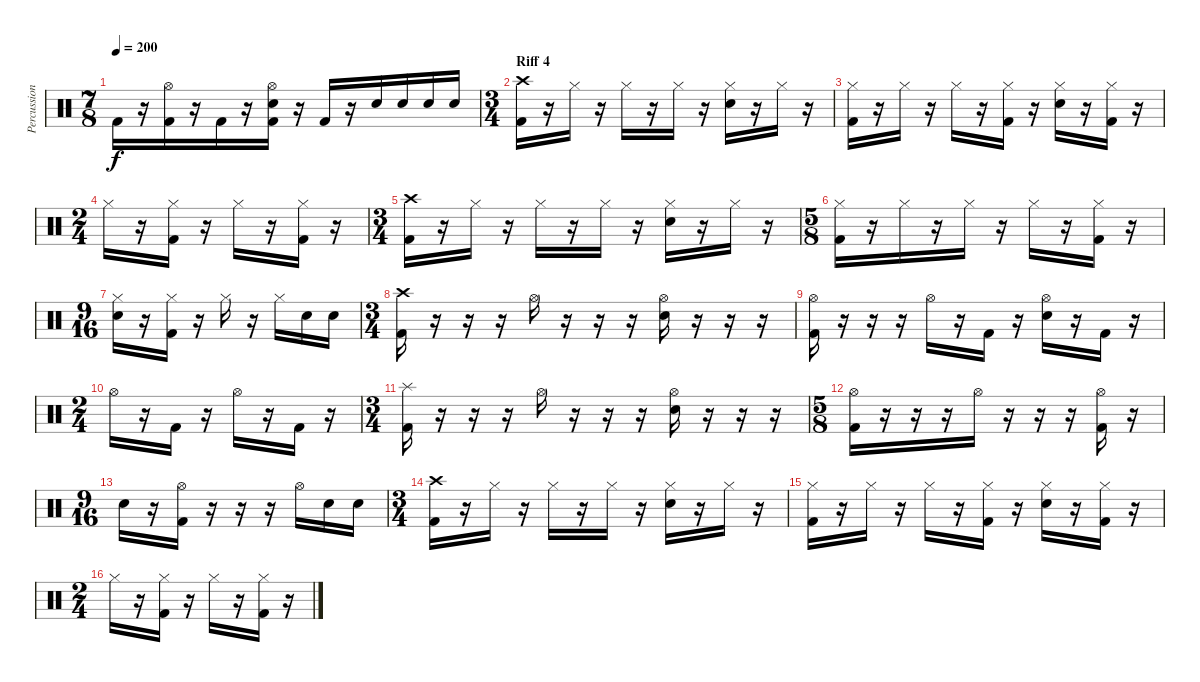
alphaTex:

\track ("Percussion" "Percussion") {instrument percussion}
\staff {score}
\articulation defaults
\ts (7 8)
\tempo 200
\clef neutral
\ks c "Kick (hit) 2".16{dy f}
r.16 ("Hi-Hat (open)" "Kick (hit) 2").16 r.16 "Kick (hit) 2".16 r.16 ("Hi-Hat (open)" "Electric Snare (hit)" "Kick (hit) 2").16 r.16 "Kick (hit) 2".16 r.16 "Electric Snare (hit)".16 "Electric Snare (hit)".16 "Electric Snare (hit)".16 "Electric Snare (hit)".16 |
\ts (3 4)
\section ("" "Riff 4")
("Crash high (hit)" "Kick (hit) 2").16 r.16 "Hi-Hat (closed)".16 r.16 "Hi-Hat (closed)".16 r.16 "Hi-Hat (closed)".16 r.16 ("Hi-Hat (closed)" "Electric Snare (hit)").16 r.16 "Hi-Hat (closed)".16 r.16 |
("Hi-Hat (closed)" "Kick (hit) 2").16 r.16 "Hi-Hat (closed)".16 r.16 "Hi-Hat (closed)".16 r.16 ("Hi-Hat (closed)" "Kick (hit) 2").16 r.16 ("Hi-Hat (closed)" "Electric Snare (hit)").16 r.16 ("Hi-Hat (closed)" "Kick (hit) 2").16 r.16 |
\ts (2 4)
"Hi-Hat (closed)".16 r.16 ("Hi-Hat (closed)" "Kick (hit) 2").16 r.16 "Hi-Hat (closed)".16 r.16 ("Hi-Hat (closed)" "Kick (hit) 2").16 r.16 |
\ts (3 4)
("Crash high (hit)" "Kick (hit) 2").16 r.16 "Hi-Hat (closed)".16 r.16 "Hi-Hat (closed)".16 r.16 "Hi-Hat (closed)".16 r.16 ("Hi-Hat (closed)" "Electric Snare (hit)").16 r.16 "Hi-Hat (closed)".16 r.16 |
\ts (5 8)
("Hi-Hat (closed)" "Kick (hit) 2").16 r.16 "Hi-Hat (closed)".16 r.16 "Hi-Hat (closed)".16 r.16 "Hi-Hat (closed)".16 r.16 ("Hi-Hat (closed)" "Kick (hit) 2").16 r.16 |
\ts (9 16)
("Hi-Hat (closed)" "Electric Snare (hit)").16 r.16 ("Hi-Hat (closed)" "Kick (hit) 2").16 r.16 "Hi-Hat (closed)".16 r.16 "Hi-Hat (closed)".16 "Electric Snare (hit)".16 "Electric Snare (hit)".16 |
\ts (3 4)
("Crash high (hit)" "Kick (hit) 2").16 r.16 r.16 r.16 "Hi-Hat (open)".16 r.16 r.16 r.16 ("Hi-Hat (open)" "Electric Snare (hit)").16 r.16 r.16 r.16 |
("Hi-Hat (open)" "Kick (hit) 2").16 r.16 r.16 r.16 "Hi-Hat (open)".16 r.16 "Kick (hit) 2".16 r.16 ("Hi-Hat (open)" "Electric Snare (hit)").16 r.16 "Kick (hit) 2".16 r.16 |
\ts (2 4)
"Hi-Hat (open)".16 r.16 "Kick (hit) 2".16 r.16 "Hi-Hat (open)".16 r.16 "Kick (hit) 2".16 r.16 |
\ts (3 4)
("Splash (hit)" "Kick (hit) 2").16 r.16 r.16 r.16 "Hi-Hat (open)".16 r.16 r.16 r.16 ("Hi-Hat (open)" "Electric Snare (hit)").16 r.16 r.16 r.16 |
\ts (5 8)
("Hi-Hat (open)" "Kick (hit) 2").16 r.16 r.16 r.16 "Hi-Hat (open)".16 r.16 r.16 r.16 ("Hi-Hat (open)" "Kick (hit) 2").16 r.16 |
\ts (9 16)
"Electric Snare (hit)".16 r.16 ("Hi-Hat (open)" "Kick (hit) 2").16 r.16 r.16 r.16 "Hi-Hat (open)".16 "Electric Snare (hit)".16 "Electric Snare (hit)".16 |
\ts (3 4)
("Crash high (hit)" "Kick (hit) 2").16 r.16 "Hi-Hat (closed)".16 r.16 "Hi-Hat (closed)".16 r.16 "Hi-Hat (closed)".16 r.16 ("Hi-Hat (closed)" "Electric Snare (hit)").16 r.16 "Hi-Hat (closed)".16 r.16 |
("Hi-Hat (closed)" "Kick (hit) 2").16 r.16 "Hi-Hat (closed)".16 r.16 "Hi-Hat (closed)".16 r.16 ("Hi-Hat (closed)" "Kick (hit) 2").16 r.16 ("Hi-Hat (closed)" "Electric Snare (hit)").16 r.16 ("Hi-Hat (closed)" "Kick (hit) 2").16 r.16 |
\ts (2 4)
"Hi-Hat (closed)".16 r.16 ("Hi-Hat (closed)" "Kick (hit) 2").16 r.16 "Hi-Hat (closed)".16 r.16 ("Hi-Hat (closed)" "Kick (hit) 2").16 r.16
